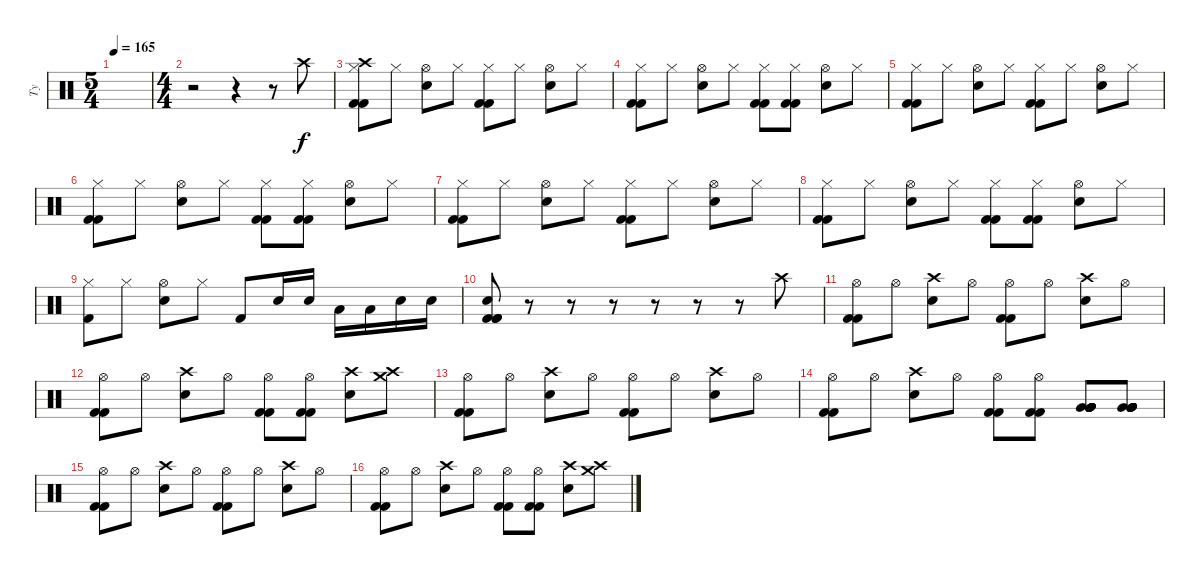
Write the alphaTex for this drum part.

\track ("Ty" "Ty") {instrument percussion}
\staff {score}
\articulation defaults
\ts (5 4)
\tempo 165
\clef neutral
\ks c
|
\ts (4 4)
r.2 r.4 r.8 "Crash high (hit)".8 |
("Hi-Hat (closed)" "Crash high (hit)" "Kick (hit) 2" "Kick (hit) 2").8 "Hi-Hat (closed)".8 ("Hi-Hat (open)" "Electric Snare (hit)").8 "Hi-Hat (closed)".8 ("Hi-Hat (closed)" "Kick (hit) 2" "Kick (hit) 2").8 "Hi-Hat (closed)".8 ("Hi-Hat (open)" "Electric Snare (hit)").8 "Hi-Hat (closed)".8 |
("Hi-Hat (closed)" "Kick (hit) 2" "Kick (hit) 2").8 "Hi-Hat (closed)".8 ("Hi-Hat (open)" "Electric Snare (hit)").8 "Hi-Hat (closed)".8 ("Hi-Hat (closed)" "Kick (hit) 2" "Kick (hit) 2").8 ("Hi-Hat (closed)" "Kick (hit) 2" "Kick (hit) 2").8 ("Hi-Hat (open)" "Electric Snare (hit)").8 "Hi-Hat (closed)".8 |
("Hi-Hat (closed)" "Kick (hit) 2" "Kick (hit) 2").8 "Hi-Hat (closed)".8 ("Hi-Hat (open)" "Electric Snare (hit)").8 "Hi-Hat (closed)".8 ("Hi-Hat (closed)" "Kick (hit) 2" "Kick (hit) 2").8 "Hi-Hat (closed)".8 ("Hi-Hat (open)" "Electric Snare (hit)").8 "Hi-Hat (closed)".8 |
("Hi-Hat (closed)" "Kick (hit) 2" "Kick (hit) 2").8 "Hi-Hat (closed)".8 ("Hi-Hat (open)" "Electric Snare (hit)").8 "Hi-Hat (closed)".8 ("Hi-Hat (closed)" "Kick (hit) 2" "Kick (hit) 2").8 ("Hi-Hat (closed)" "Kick (hit) 2" "Kick (hit) 2").8 ("Hi-Hat (open)" "Electric Snare (hit)").8 "Hi-Hat (closed)".8 |
("Hi-Hat (closed)" "Kick (hit) 2" "Kick (hit) 2").8 "Hi-Hat (closed)".8 ("Hi-Hat (open)" "Electric Snare (hit)").8 "Hi-Hat (closed)".8 ("Hi-Hat (closed)" "Kick (hit) 2" "Kick (hit) 2").8 "Hi-Hat (closed)".8 ("Hi-Hat (open)" "Electric Snare (hit)").8 "Hi-Hat (closed)".8 |
("Hi-Hat (closed)" "Kick (hit) 2" "Kick (hit) 2").8 "Hi-Hat (closed)".8 ("Hi-Hat (open)" "Electric Snare (hit)").8 "Hi-Hat (closed)".8 ("Hi-Hat (closed)" "Kick (hit) 2" "Kick (hit) 2").8 ("Hi-Hat (closed)" "Kick (hit) 2" "Kick (hit) 2").8 ("Hi-Hat (open)" "Electric Snare (hit)").8 "Hi-Hat (closed)".8 |
("Hi-Hat (closed)" "Kick (hit) 2").8 "Hi-Hat (closed)".8 ("Hi-Hat (open)" "Electric Snare (hit)").8 "Hi-Hat (closed)".8 "Kick (hit) 2".8 "Electric Snare (hit)".16 "Electric Snare (hit)".16 "Low Tom (hit)".16 "Low Tom (hit)".16 "Electric Snare (hit)".16 "Electric Snare (hit)".16 |
("Electric Snare (hit)" "Kick (hit) 2" "Kick (hit) 2" "Kick (hit) 2").8 r.8 r.8 r.8 r.8 r.8 r.8 "Crash high (hit)".8 |
("Hi-Hat (open)" "Kick (hit) 2" "Kick (hit) 2").8 "Hi-Hat (open)".8 ("Crash high (hit)" "Electric Snare (hit)").8 "Hi-Hat (open)".8 ("Hi-Hat (open)" "Kick (hit) 2" "Kick (hit) 2").8 "Hi-Hat (open)".8 ("Crash high (hit)" "Electric Snare (hit)").8 "Hi-Hat (open)".8 |
("Hi-Hat (open)" "Kick (hit) 2" "Kick (hit) 2").8 "Hi-Hat (open)".8 ("Crash high (hit)" "Electric Snare (hit)").8 "Hi-Hat (open)".8 ("Hi-Hat (open)" "Kick (hit) 2" "Kick (hit) 2").8 ("Hi-Hat (open)" "Kick (hit) 2" "Kick (hit) 2").8 ("Crash high (hit)" "Electric Snare (hit)").8 ("Crash high (hit)" "Crash medium (hit)").8 |
("Hi-Hat (open)" "Kick (hit) 2" "Kick (hit) 2").8 "Hi-Hat (open)".8 ("Crash high (hit)" "Electric Snare (hit)").8 "Hi-Hat (open)".8 ("Hi-Hat (open)" "Kick (hit) 2" "Kick (hit) 2").8 "Hi-Hat (open)".8 ("Crash high (hit)" "Electric Snare (hit)").8 "Hi-Hat (open)".8 |
("Hi-Hat (open)" "Kick (hit) 2" "Kick (hit) 2").8 "Hi-Hat (open)".8 ("Crash high (hit)" "Electric Snare (hit)").8 "Hi-Hat (open)".8 ("Hi-Hat (open)" "Kick (hit) 2" "Kick (hit) 2").8 ("Hi-Hat (open)" "Kick (hit) 2" "Kick (hit) 2").8 ("Very Low Tom (hit)" "Very Low Tom (hit)" "Very Low Tom (hit)" "Very Low Tom (hit)" "Very Low Tom (hit)" "Very Low Tom (hit)").8 ("Very Low Tom (hit)" "Very Low Tom (hit)" "Very Low Tom (hit)" "Very Low Tom (hit)" "Very Low Tom (hit)" "Very Low Tom (hit)").8 |
("Hi-Hat (open)" "Kick (hit) 2" "Kick (hit) 2").8 "Hi-Hat (open)".8 ("Crash high (hit)" "Electric Snare (hit)").8 "Hi-Hat (open)".8 ("Hi-Hat (open)" "Kick (hit) 2" "Kick (hit) 2").8 "Hi-Hat (open)".8 ("Crash high (hit)" "Electric Snare (hit)").8 "Hi-Hat (open)".8 |
("Hi-Hat (open)" "Kick (hit) 2" "Kick (hit) 2").8 "Hi-Hat (open)".8 ("Crash high (hit)" "Electric Snare (hit)").8 "Hi-Hat (open)".8 ("Hi-Hat (open)" "Kick (hit) 2" "Kick (hit) 2").8 ("Hi-Hat (open)" "Kick (hit) 2" "Kick (hit) 2").8 ("Crash high (hit)" "Electric Snare (hit)").8 ("Crash high (hit)" "Crash medium (hit)").8
